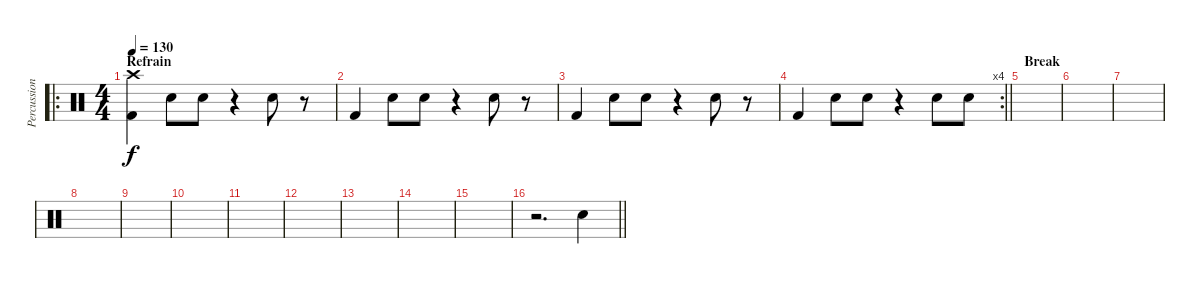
\track ("Percussions" "Percussion") {instrument percussion}
\staff {score}
\articulation defaults
\ro
\ts (4 4)
\section ("" "Refrain")
\tempo 130
\clef neutral
\ks c
("Crash high (hit)" "Kick (hit) 2").4{dy f} "Snare (hit) 2".8 "Snare (hit) 2".8 r.4 "Snare (hit) 2".8 r.8 |
"Kick (hit) 2".4 "Snare (hit) 2".8 "Snare (hit) 2".8 r.4 "Snare (hit) 2".8 r.8 |
"Kick (hit) 2".4 "Snare (hit) 2".8 "Snare (hit) 2".8 r.4 "Snare (hit) 2".8 r.8 |
\rc 4
\barLineRight lightlight "Kick (hit) 2".4 "Snare (hit) 2".8 "Snare (hit) 2".8
r.4 "Snare (hit) 2".8 "Snare (hit) 2".8 |
\section ("" "Break")
|
|
|
|
|
|
|
|
|
|
|
\barLineRight lightlight
r.2{d} "Snare (hit) 2".4
